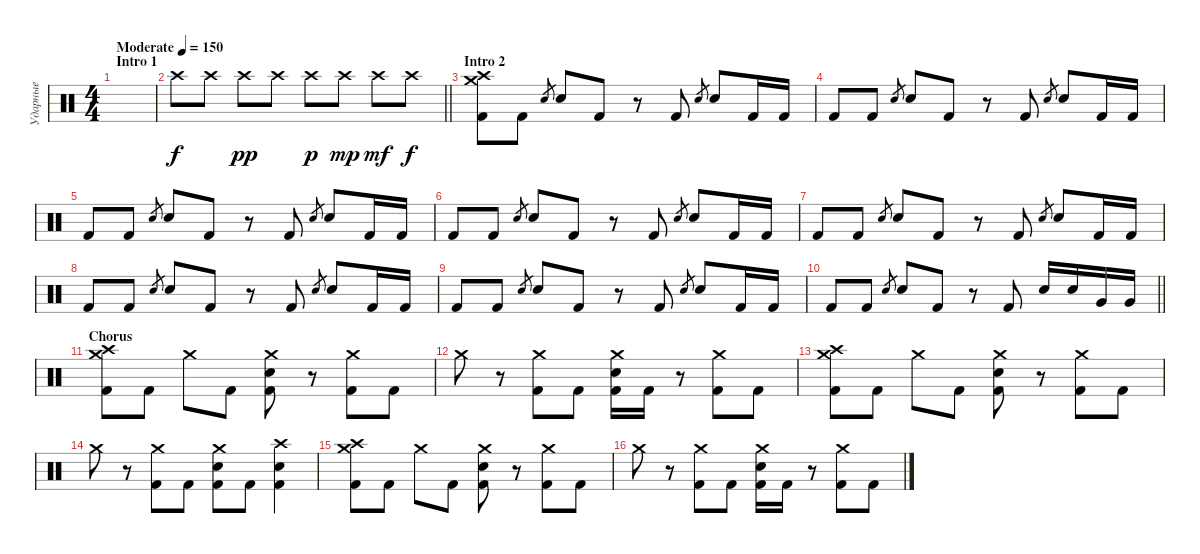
\track ("Ударные" "Ударные") {instrument percussion}
\staff {score}
\articulation defaults
\ts (4 4)
\section ("" "Intro 1")
\tempo (150 "Moderate")
\clef neutral
\ks c
|
\barLineRight lightlight "Crash high (hit)".8 "Crash high (hit)".8 "Crash high (hit)".8{dy pp} "Crash high (hit)".8 "Crash high (hit)".8{dy p} "Crash high (hit)".8{dy mp} "Crash high (hit)".8{dy mf} "Crash high (hit)".8{dy f}
|
\section ("" "Intro 2")
("Crash high (hit)" "Crash medium (hit)" "Kick (hit) 2").8 "Kick (hit) 2".8 "Electric Snare (hit)".8{gr} "Electric Snare (hit)".8 "Kick (hit) 2".8 r.8 "Kick (hit) 2".8 "Electric Snare (hit)".8{gr} "Electric Snare (hit)".8 "Kick (hit) 2".16 "Kick (hit) 2".16 |
"Kick (hit) 2".8 "Kick (hit) 2".8 "Electric Snare (hit)".8{gr} "Electric Snare (hit)".8 "Kick (hit) 2".8 r.8 "Kick (hit) 2".8 "Electric Snare (hit)".8{gr} "Electric Snare (hit)".8 "Kick (hit) 2".16 "Kick (hit) 2".16 |
"Kick (hit) 2".8 "Kick (hit) 2".8 "Electric Snare (hit)".8{gr} "Electric Snare (hit)".8 "Kick (hit) 2".8 r.8 "Kick (hit) 2".8 "Electric Snare (hit)".8{gr} "Electric Snare (hit)".8 "Kick (hit) 2".16 "Kick (hit) 2".16 |
"Kick (hit) 2".8 "Kick (hit) 2".8 "Electric Snare (hit)".8{gr} "Electric Snare (hit)".8 "Kick (hit) 2".8 r.8 "Kick (hit) 2".8 "Electric Snare (hit)".8{gr} "Electric Snare (hit)".8 "Kick (hit) 2".16 "Kick (hit) 2".16 |
"Kick (hit) 2".8 "Kick (hit) 2".8 "Electric Snare (hit)".8{gr} "Electric Snare (hit)".8 "Kick (hit) 2".8 r.8 "Kick (hit) 2".8 "Electric Snare (hit)".8{gr} "Electric Snare (hit)".8 "Kick (hit) 2".16 "Kick (hit) 2".16 |
"Kick (hit) 2".8 "Kick (hit) 2".8 "Electric Snare (hit)".8{gr} "Electric Snare (hit)".8 "Kick (hit) 2".8 r.8 "Kick (hit) 2".8 "Electric Snare (hit)".8{gr} "Electric Snare (hit)".8 "Kick (hit) 2".16 "Kick (hit) 2".16 |
"Kick (hit) 2".8 "Kick (hit) 2".8 "Electric Snare (hit)".8{gr} "Electric Snare (hit)".8 "Kick (hit) 2".8 r.8 "Kick (hit) 2".8 "Electric Snare (hit)".8{gr} "Electric Snare (hit)".8 "Kick (hit) 2".16 "Kick (hit) 2".16 |
\barLineRight lightlight "Kick (hit) 2".8 "Kick (hit) 2".8 "Electric Snare (hit)".8{gr} "Electric Snare (hit)".8 "Kick (hit) 2".8
r.8 "Kick (hit) 2".8 "Electric Snare (hit)".16 "Electric Snare (hit)".16 "Very Low Tom (hit)".16 "Very Low Tom (hit)".16 |
\section ("" "Chorus")
("Crash high (hit)" "Crash medium (hit)" "Kick (hit) 2").8 "Kick (hit) 2".8 "Crash medium (hit)".8 "Kick (hit) 2".8 ("Crash medium (hit)" "Electric Snare (hit)" "Kick (hit) 2").8 r.8 ("Crash medium (hit)" "Kick (hit) 2").8 "Kick (hit) 2".8 |
"Crash medium (hit)".8 r.8 ("Crash medium (hit)" "Kick (hit) 2").8 "Kick (hit) 2".8 ("Crash medium (hit)" "Electric Snare (hit)" "Kick (hit) 2").16 "Kick (hit) 2".16 r.8 ("Crash medium (hit)" "Kick (hit) 2").8 "Kick (hit) 2".8 |
("Crash high (hit)" "Crash medium (hit)" "Kick (hit) 2").8 "Kick (hit) 2".8 "Crash medium (hit)".8 "Kick (hit) 2".8 ("Crash medium (hit)" "Electric Snare (hit)" "Kick (hit) 2").8 r.8 ("Crash medium (hit)" "Kick (hit) 2").8 "Kick (hit) 2".8 |
"Crash medium (hit)".8 r.8 ("Crash medium (hit)" "Kick (hit) 2").8 "Kick (hit) 2".8 ("Crash medium (hit)" "Electric Snare (hit)" "Kick (hit) 2").8 "Kick (hit) 2".8 ("Crash high (hit)" "Electric Snare (hit)" "Kick (hit) 2").4 |
("Crash high (hit)" "Crash medium (hit)" "Kick (hit) 2").8 "Kick (hit) 2".8 "Crash medium (hit)".8 "Kick (hit) 2".8 ("Crash medium (hit)" "Electric Snare (hit)" "Kick (hit) 2").8 r.8 ("Crash medium (hit)" "Kick (hit) 2").8 "Kick (hit) 2".8 |
"Crash medium (hit)".8 r.8 ("Crash medium (hit)" "Kick (hit) 2").8 "Kick (hit) 2".8 ("Crash medium (hit)" "Electric Snare (hit)" "Kick (hit) 2").16 "Kick (hit) 2".16 r.8 ("Crash medium (hit)" "Kick (hit) 2").8 "Kick (hit) 2".8
